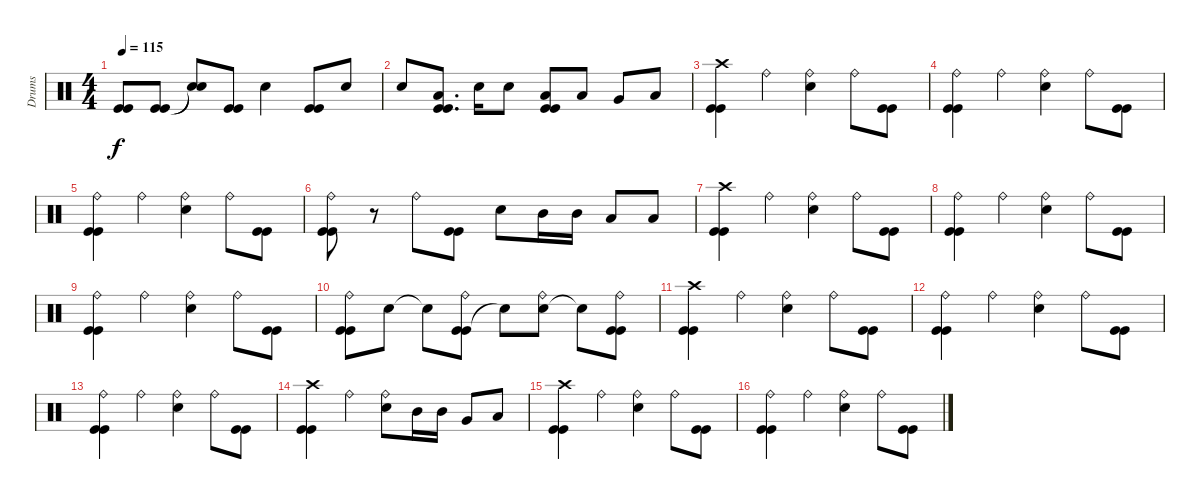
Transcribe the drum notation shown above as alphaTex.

\track ("Drums" "Drums") {instrument percussion}
\staff {score}
\articulation defaults
\ts (4 4)
\tempo 115
\clef neutral
\ks c
("Kick (hit)" "Kick (hit)").8{dy f} ("Kick (hit)" "Kick (hit)").8 ("Snare (hit)"{t} "Snare (hit)"{t}).8 ("Kick (hit)" "Kick (hit)").8 "Snare (hit) 2".4 ("Kick (hit)" "Kick (hit)").8 "Snare (hit) 2".8 |
"Snare (hit) 2".8 ("Kick (hit)" "Kick (hit)" "Low Floor Tom (hit)").8{d} "Snare (hit) 2".16 "Snare (hit) 2".8 ("Kick (hit)" "Kick (hit)" "Low Tom (hit)").8 "Low Tom (hit)".8 "Very Low Tom (hit)".8 "Low Floor Tom (hit)".8 |
("Kick (hit)" "Kick (hit)" "Crash high (hit)").4 "Ride (bell)".4 ("Snare (hit) 2" "Ride (bell)").4 "Ride (bell)".8 ("Kick (hit)" "Kick (hit)").8 |
("Kick (hit)" "Kick (hit)" "Ride (bell)").4 "Ride (bell)".4 ("Snare (hit) 2" "Ride (bell)").4 "Ride (bell)".8 ("Kick (hit)" "Kick (hit)").8 |
("Kick (hit)" "Kick (hit)" "Ride (bell)").4 "Ride (bell)".4 ("Snare (hit) 2" "Ride (bell)").4 "Ride (bell)".8 ("Kick (hit)" "Kick (hit)").8 |
("Kick (hit)" "Kick (hit)" "Ride (bell)").8 r.8 "Ride (bell)".8 ("Kick (hit)" "Kick (hit)").8 "Snare (hit) 2".8 "Mid Tom (hit)".16 "Mid Tom (hit)".16 "Low Tom (hit)".8 "Low Floor Tom (hit)".8 |
("Kick (hit)" "Kick (hit)" "Crash high (hit)").4 "Ride (bell)".4 ("Snare (hit) 2" "Ride (bell)").4 "Ride (bell)".8 ("Kick (hit)" "Kick (hit)").8 |
("Kick (hit)" "Kick (hit)" "Ride (bell)").4 "Ride (bell)".4 ("Snare (hit) 2" "Ride (bell)").4 "Ride (bell)".8 ("Kick (hit)" "Kick (hit)").8 |
("Kick (hit)" "Kick (hit)" "Ride (bell)").4 "Ride (bell)".4 ("Snare (hit) 2" "Ride (bell)").4 "Ride (bell)".8 ("Kick (hit)" "Kick (hit)").8 |
("Kick (hit)" "Kick (hit)" "Ride (bell)").8 "Snare (hit) 2".8 "Snare (hit)"{t}.8 ("Kick (hit)" "Kick (hit)" "Ride (bell)").8 "Snare (hit)"{t}.8 ("Snare (hit) 2" "Ride (bell)").8 "Snare (hit)"{t}.8 ("Kick (hit)" "Kick (hit)" "Ride (bell)").8 |
("Kick (hit)" "Kick (hit)" "Crash high (hit)").4 "Ride (bell)".4 ("Snare (hit) 2" "Ride (bell)").4 "Ride (bell)".8 ("Kick (hit)" "Kick (hit)").8 |
("Kick (hit)" "Kick (hit)" "Ride (bell)").4 "Ride (bell)".4 ("Snare (hit) 2" "Ride (bell)").4 "Ride (bell)".8 ("Kick (hit)" "Kick (hit)").8 |
("Kick (hit)" "Kick (hit)" "Ride (bell)").4 "Ride (bell)".4 ("Snare (hit) 2" "Ride (bell)").4 "Ride (bell)".8 ("Kick (hit)" "Kick (hit)").8 |
("Kick (hit)" "Kick (hit)" "Crash high (hit)").4 "Ride (bell)".4 ("Snare (hit) 2" "Ride (bell)").8 "Mid Tom (hit)".16 "Mid Tom (hit)".16 "Very Low Tom (hit)".8 "Low Floor Tom (hit)".8 |
("Kick (hit)" "Kick (hit)" "Crash high (hit)").4 "Ride (bell)".4 ("Snare (hit) 2" "Ride (bell)").4 "Ride (bell)".8 ("Kick (hit)" "Kick (hit)").8 |
("Kick (hit)" "Kick (hit)" "Ride (bell)").4 "Ride (bell)".4 ("Snare (hit) 2" "Ride (bell)").4 "Ride (bell)".8 ("Kick (hit)" "Kick (hit)").8
